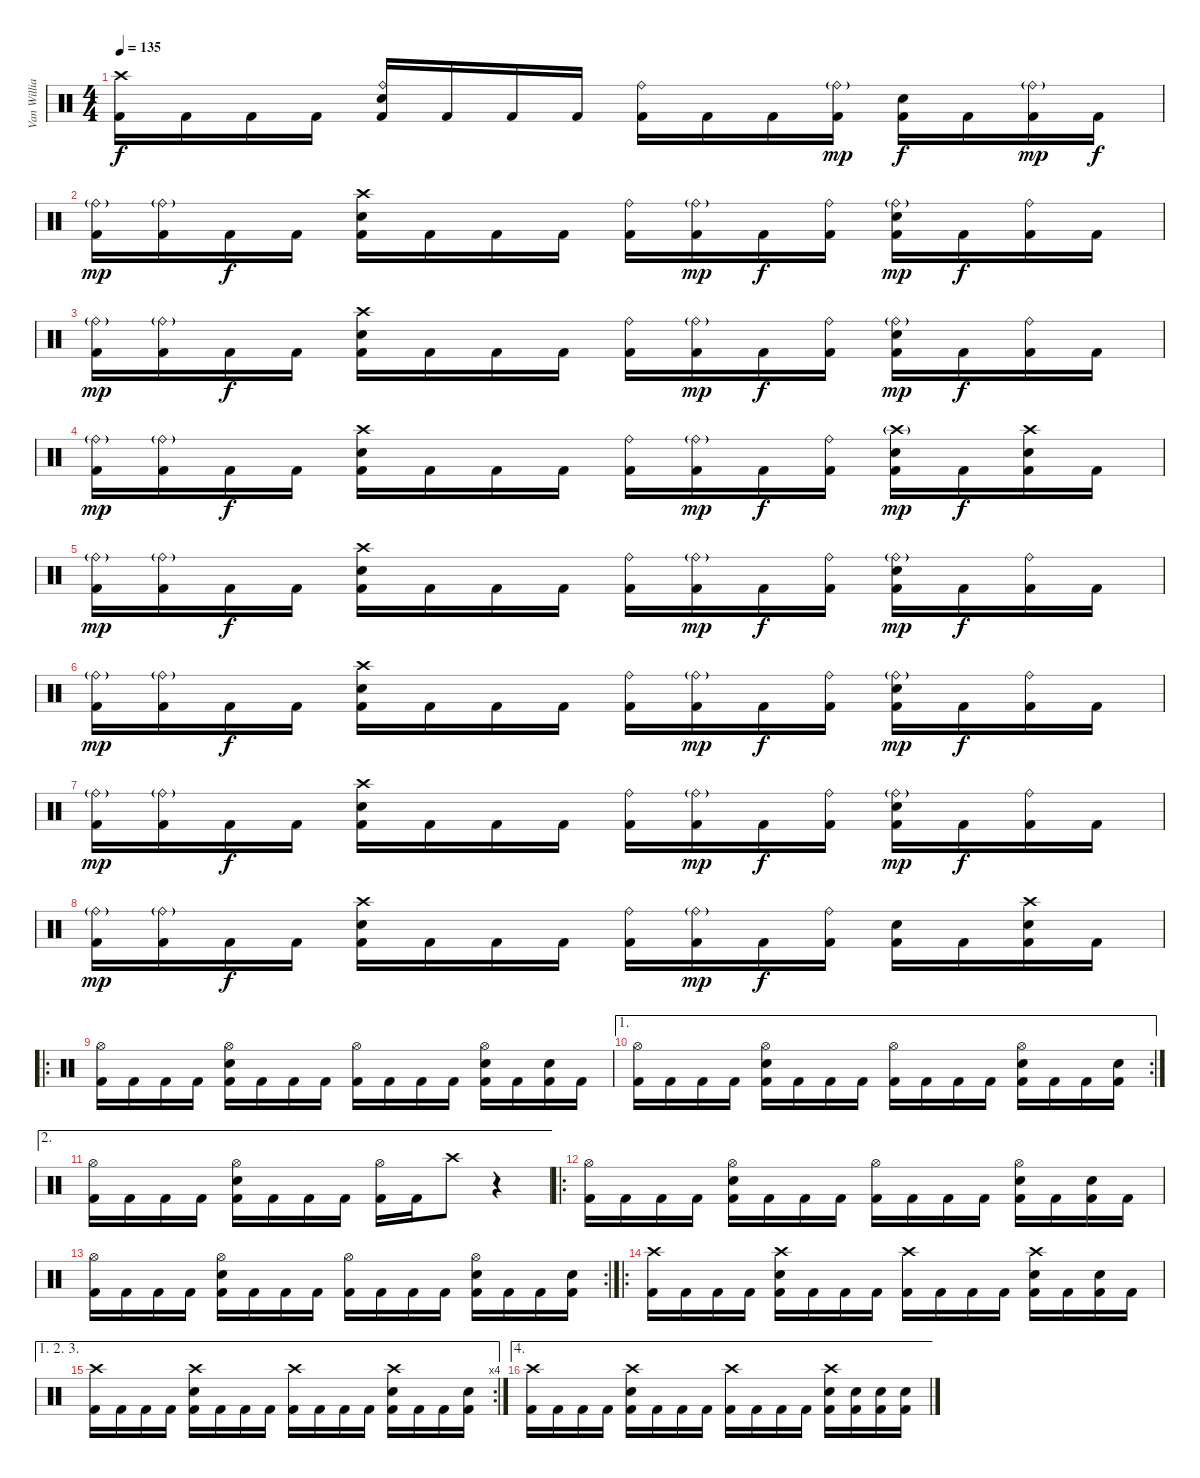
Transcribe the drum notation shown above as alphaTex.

\track ("Van Williams" "Van Willia") {instrument percussion}
\staff {score}
\articulation defaults
\ts (4 4)
\tempo 135
\clef neutral
\ks c
("Crash high (hit)" "Kick (hit) 2").16{dy f} "Kick (hit) 2".16 "Kick (hit) 2".16 "Kick (hit) 2".16 ("Ride (bell)" "Kick (hit) 2" "Electric Snare (hit)").16 "Kick (hit) 2".16 "Kick (hit) 2".16 "Kick (hit) 2".16 ("Ride (bell)" "Kick (hit) 2").16 "Kick (hit) 2".16 "Kick (hit) 2".16 ("Ride (bell)"{g} "Kick (hit) 2").16{dy mp} ("Kick (hit) 2" "Electric Snare (hit)").16{dy f} "Kick (hit) 2".16 ("Ride (bell)"{g} "Kick (hit) 2").16{dy mp} "Kick (hit) 2".16{dy f} |
("Ride (bell)"{g} "Kick (hit) 2").16{dy mp} ("Ride (bell)"{g} "Kick (hit) 2").16 "Kick (hit) 2".16{dy f} "Kick (hit) 2".16 ("Crash high (hit)" "Kick (hit) 2" "Electric Snare (hit)").16 "Kick (hit) 2".16 "Kick (hit) 2".16 "Kick (hit) 2".16 ("Ride (bell)" "Kick (hit) 2").16 ("Ride (bell)"{g} "Kick (hit) 2").16{dy mp} "Kick (hit) 2".16{dy f} ("Ride (bell)" "Kick (hit) 2").16 ("Ride (bell)"{g} "Kick (hit) 2" "Electric Snare (hit)").16{dy mp} "Kick (hit) 2".16{dy f} ("Ride (bell)" "Kick (hit) 2").16 "Kick (hit) 2".16 |
("Ride (bell)"{g} "Kick (hit) 2").16{dy mp} ("Ride (bell)"{g} "Kick (hit) 2").16 "Kick (hit) 2".16{dy f} "Kick (hit) 2".16 ("Crash high (hit)" "Kick (hit) 2" "Electric Snare (hit)").16 "Kick (hit) 2".16 "Kick (hit) 2".16 "Kick (hit) 2".16 ("Ride (bell)" "Kick (hit) 2").16 ("Ride (bell)"{g} "Kick (hit) 2").16{dy mp} "Kick (hit) 2".16{dy f} ("Ride (bell)" "Kick (hit) 2").16 ("Ride (bell)"{g} "Kick (hit) 2" "Electric Snare (hit)").16{dy mp} "Kick (hit) 2".16{dy f} ("Ride (bell)" "Kick (hit) 2").16 "Kick (hit) 2".16 |
("Ride (bell)"{g} "Kick (hit) 2").16{dy mp} ("Ride (bell)"{g} "Kick (hit) 2").16 "Kick (hit) 2".16{dy f} "Kick (hit) 2".16 ("Crash high (hit)" "Kick (hit) 2" "Electric Snare (hit)").16 "Kick (hit) 2".16 "Kick (hit) 2".16 "Kick (hit) 2".16 ("Ride (bell)" "Kick (hit) 2").16 ("Ride (bell)"{g} "Kick (hit) 2").16{dy mp} "Kick (hit) 2".16{dy f} ("Ride (bell)" "Kick (hit) 2").16 ("Crash high (hit)"{g} "Kick (hit) 2" "Electric Snare (hit)").16{dy mp} "Kick (hit) 2".16{dy f} ("Crash high (hit)" "Kick (hit) 2" "Electric Snare (hit)").16 "Kick (hit) 2".16 |
("Ride (bell)"{g} "Kick (hit) 2").16{dy mp} ("Ride (bell)"{g} "Kick (hit) 2").16 "Kick (hit) 2".16{dy f} "Kick (hit) 2".16 ("Crash high (hit)" "Kick (hit) 2" "Electric Snare (hit)").16 "Kick (hit) 2".16 "Kick (hit) 2".16 "Kick (hit) 2".16 ("Ride (bell)" "Kick (hit) 2").16 ("Ride (bell)"{g} "Kick (hit) 2").16{dy mp} "Kick (hit) 2".16{dy f} ("Ride (bell)" "Kick (hit) 2").16 ("Ride (bell)"{g} "Kick (hit) 2" "Electric Snare (hit)").16{dy mp} "Kick (hit) 2".16{dy f} ("Ride (bell)" "Kick (hit) 2").16 "Kick (hit) 2".16 |
("Ride (bell)"{g} "Kick (hit) 2").16{dy mp} ("Ride (bell)"{g} "Kick (hit) 2").16 "Kick (hit) 2".16{dy f} "Kick (hit) 2".16 ("Crash high (hit)" "Kick (hit) 2" "Electric Snare (hit)").16 "Kick (hit) 2".16 "Kick (hit) 2".16 "Kick (hit) 2".16 ("Ride (bell)" "Kick (hit) 2").16 ("Ride (bell)"{g} "Kick (hit) 2").16{dy mp} "Kick (hit) 2".16{dy f} ("Ride (bell)" "Kick (hit) 2").16 ("Ride (bell)"{g} "Kick (hit) 2" "Electric Snare (hit)").16{dy mp} "Kick (hit) 2".16{dy f} ("Ride (bell)" "Kick (hit) 2").16 "Kick (hit) 2".16 |
("Ride (bell)"{g} "Kick (hit) 2").16{dy mp} ("Ride (bell)"{g} "Kick (hit) 2").16 "Kick (hit) 2".16{dy f} "Kick (hit) 2".16 ("Crash high (hit)" "Kick (hit) 2" "Electric Snare (hit)").16 "Kick (hit) 2".16 "Kick (hit) 2".16 "Kick (hit) 2".16 ("Ride (bell)" "Kick (hit) 2").16 ("Ride (bell)"{g} "Kick (hit) 2").16{dy mp} "Kick (hit) 2".16{dy f} ("Ride (bell)" "Kick (hit) 2").16 ("Ride (bell)"{g} "Kick (hit) 2" "Electric Snare (hit)").16{dy mp} "Kick (hit) 2".16{dy f} ("Ride (bell)" "Kick (hit) 2").16 "Kick (hit) 2".16 |
("Ride (bell)"{g} "Kick (hit) 2").16{dy mp} ("Ride (bell)"{g} "Kick (hit) 2").16 "Kick (hit) 2".16{dy f} "Kick (hit) 2".16 ("Crash high (hit)" "Kick (hit) 2" "Electric Snare (hit)").16 "Kick (hit) 2".16 "Kick (hit) 2".16 "Kick (hit) 2".16 ("Ride (bell)" "Kick (hit) 2").16 ("Ride (bell)"{g} "Kick (hit) 2").16{dy mp} "Kick (hit) 2".16{dy f} ("Ride (bell)" "Kick (hit) 2").16 ("Kick (hit) 2" "Electric Snare (hit)").16 "Kick (hit) 2".16 ("Crash high (hit)" "Kick (hit) 2" "Electric Snare (hit)").16 "Kick (hit) 2".16 |
\ro
("Hi-Hat (open)" "Kick (hit) 2").16 "Kick (hit) 2".16 "Kick (hit) 2".16 "Kick (hit) 2".16 ("Hi-Hat (open)" "Kick (hit) 2" "Electric Snare (hit)").16 "Kick (hit) 2".16 "Kick (hit) 2".16 "Kick (hit) 2".16 ("Hi-Hat (open)" "Kick (hit) 2").16 "Kick (hit) 2".16 "Kick (hit) 2".16 "Kick (hit) 2".16 ("Hi-Hat (open)" "Kick (hit) 2" "Electric Snare (hit)").16 "Kick (hit) 2".16 ("Kick (hit) 2" "Electric Snare (hit)").16 "Kick (hit) 2".16 |
\ae 1
\rc 2
("Hi-Hat (open)" "Kick (hit) 2").16 "Kick (hit) 2".16 "Kick (hit) 2".16 "Kick (hit) 2".16 ("Hi-Hat (open)" "Kick (hit) 2" "Electric Snare (hit)").16 "Kick (hit) 2".16 "Kick (hit) 2".16 "Kick (hit) 2".16 ("Hi-Hat (open)" "Kick (hit) 2").16 "Kick (hit) 2".16 "Kick (hit) 2".16 "Kick (hit) 2".16 ("Hi-Hat (open)" "Kick (hit) 2" "Electric Snare (hit)").16 "Kick (hit) 2".16 "Kick (hit) 2".16 ("Kick (hit) 2" "Electric Snare (hit)").16 |
\ae 2
("Hi-Hat (open)" "Kick (hit) 2").16 "Kick (hit) 2".16 "Kick (hit) 2".16 "Kick (hit) 2".16 ("Hi-Hat (open)" "Kick (hit) 2" "Electric Snare (hit)").16 "Kick (hit) 2".16 "Kick (hit) 2".16 "Kick (hit) 2".16 ("Hi-Hat (open)" "Kick (hit) 2").16 "Kick (hit) 2".16 "Crash high (hit)".8 r.4 |
\ro
("Hi-Hat (open)" "Kick (hit) 2").16 "Kick (hit) 2".16 "Kick (hit) 2".16 "Kick (hit) 2".16 ("Hi-Hat (open)" "Kick (hit) 2" "Electric Snare (hit)").16 "Kick (hit) 2".16 "Kick (hit) 2".16 "Kick (hit) 2".16 ("Hi-Hat (open)" "Kick (hit) 2").16 "Kick (hit) 2".16 "Kick (hit) 2".16 "Kick (hit) 2".16 ("Hi-Hat (open)" "Kick (hit) 2" "Electric Snare (hit)").16 "Kick (hit) 2".16 ("Kick (hit) 2" "Electric Snare (hit)").16 "Kick (hit) 2".16 |
\rc 2
("Hi-Hat (open)" "Kick (hit) 2").16 "Kick (hit) 2".16 "Kick (hit) 2".16 "Kick (hit) 2".16 ("Hi-Hat (open)" "Kick (hit) 2" "Electric Snare (hit)").16 "Kick (hit) 2".16 "Kick (hit) 2".16 "Kick (hit) 2".16 ("Hi-Hat (open)" "Kick (hit) 2").16 "Kick (hit) 2".16 "Kick (hit) 2".16 "Kick (hit) 2".16 ("Hi-Hat (open)" "Kick (hit) 2" "Electric Snare (hit)").16 "Kick (hit) 2".16 "Kick (hit) 2".16 ("Kick (hit) 2" "Electric Snare (hit)").16 |
\ro
("Crash high (hit)" "Kick (hit) 2").16 "Kick (hit) 2".16 "Kick (hit) 2".16 "Kick (hit) 2".16 ("Crash high (hit)" "Kick (hit) 2" "Electric Snare (hit)").16 "Kick (hit) 2".16 "Kick (hit) 2".16 "Kick (hit) 2".16 ("Crash high (hit)" "Kick (hit) 2").16 "Kick (hit) 2".16 "Kick (hit) 2".16 "Kick (hit) 2".16 ("Crash high (hit)" "Kick (hit) 2" "Electric Snare (hit)").16 "Kick (hit) 2".16 ("Kick (hit) 2" "Electric Snare (hit)").16 "Kick (hit) 2".16 |
\ae (1 2 3)
\rc 4
("Crash high (hit)" "Kick (hit) 2").16 "Kick (hit) 2".16 "Kick (hit) 2".16 "Kick (hit) 2".16 ("Crash high (hit)" "Kick (hit) 2" "Electric Snare (hit)").16 "Kick (hit) 2".16 "Kick (hit) 2".16 "Kick (hit) 2".16 ("Crash high (hit)" "Kick (hit) 2").16 "Kick (hit) 2".16 "Kick (hit) 2".16 "Kick (hit) 2".16 ("Crash high (hit)" "Kick (hit) 2" "Electric Snare (hit)").16 "Kick (hit) 2".16 "Kick (hit) 2".16 ("Kick (hit) 2" "Electric Snare (hit)").16 |
\ae 4
("Crash high (hit)" "Kick (hit) 2").16 "Kick (hit) 2".16 "Kick (hit) 2".16 "Kick (hit) 2".16 ("Crash high (hit)" "Kick (hit) 2" "Electric Snare (hit)").16 "Kick (hit) 2".16 "Kick (hit) 2".16 "Kick (hit) 2".16 ("Crash high (hit)" "Kick (hit) 2").16 "Kick (hit) 2".16 "Kick (hit) 2".16 "Kick (hit) 2".16 ("Crash high (hit)" "Kick (hit) 2" "Electric Snare (hit)").16 ("Kick (hit) 2" "Electric Snare (hit)").16 ("Kick (hit) 2" "Electric Snare (hit)").16 ("Kick (hit) 2" "Electric Snare (hit)").16
